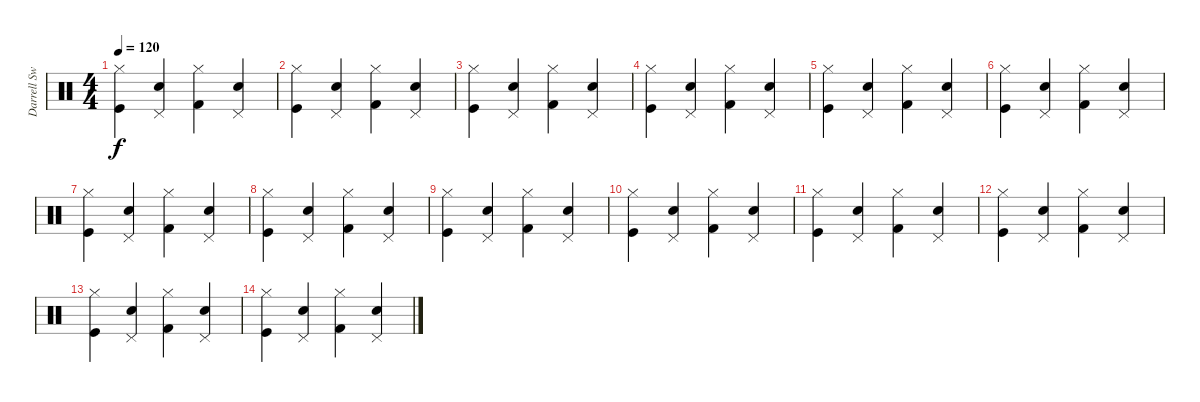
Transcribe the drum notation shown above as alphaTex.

\track ("Darrell Sweet (drums)" "Darrell Sw") {instrument percussion}
\staff {score}
\articulation defaults
\ts (4 4)
\tempo 120
\clef neutral
\ks c
("Hi-Hat (closed)" "Kick (hit)").4{dy f} ("Pedal Hi-Hat (hit)" "Snare (hit) 2").4 ("Hi-Hat (closed)" "Kick (hit) 2").4 ("Pedal Hi-Hat (hit)" "Snare (hit) 2").4 |
("Hi-Hat (closed)" "Kick (hit)").4 ("Pedal Hi-Hat (hit)" "Snare (hit) 2").4 ("Hi-Hat (closed)" "Kick (hit) 2").4 ("Pedal Hi-Hat (hit)" "Snare (hit) 2").4 |
("Hi-Hat (closed)" "Kick (hit)").4 ("Pedal Hi-Hat (hit)" "Snare (hit) 2").4 ("Hi-Hat (closed)" "Kick (hit) 2").4 ("Pedal Hi-Hat (hit)" "Snare (hit) 2").4 |
("Hi-Hat (closed)" "Kick (hit)").4 ("Pedal Hi-Hat (hit)" "Snare (hit) 2").4 ("Hi-Hat (closed)" "Kick (hit) 2").4 ("Pedal Hi-Hat (hit)" "Snare (hit) 2").4 |
("Hi-Hat (closed)" "Kick (hit)").4 ("Pedal Hi-Hat (hit)" "Snare (hit) 2").4 ("Hi-Hat (closed)" "Kick (hit) 2").4 ("Pedal Hi-Hat (hit)" "Snare (hit) 2").4 |
("Hi-Hat (closed)" "Kick (hit)").4 ("Pedal Hi-Hat (hit)" "Snare (hit) 2").4 ("Hi-Hat (closed)" "Kick (hit) 2").4 ("Pedal Hi-Hat (hit)" "Snare (hit) 2").4 |
("Hi-Hat (closed)" "Kick (hit)").4 ("Pedal Hi-Hat (hit)" "Snare (hit) 2").4 ("Hi-Hat (closed)" "Kick (hit) 2").4 ("Pedal Hi-Hat (hit)" "Snare (hit) 2").4 |
("Hi-Hat (closed)" "Kick (hit)").4 ("Pedal Hi-Hat (hit)" "Snare (hit) 2").4 ("Hi-Hat (closed)" "Kick (hit) 2").4 ("Pedal Hi-Hat (hit)" "Snare (hit) 2").4 |
("Hi-Hat (closed)" "Kick (hit)").4 ("Pedal Hi-Hat (hit)" "Snare (hit) 2").4 ("Hi-Hat (closed)" "Kick (hit) 2").4 ("Pedal Hi-Hat (hit)" "Snare (hit) 2").4 |
("Hi-Hat (closed)" "Kick (hit)").4 ("Pedal Hi-Hat (hit)" "Snare (hit) 2").4 ("Hi-Hat (closed)" "Kick (hit) 2").4 ("Pedal Hi-Hat (hit)" "Snare (hit) 2").4 |
("Hi-Hat (closed)" "Kick (hit)").4 ("Pedal Hi-Hat (hit)" "Snare (hit) 2").4 ("Hi-Hat (closed)" "Kick (hit) 2").4 ("Pedal Hi-Hat (hit)" "Snare (hit) 2").4 |
("Hi-Hat (closed)" "Kick (hit)").4 ("Pedal Hi-Hat (hit)" "Snare (hit) 2").4 ("Hi-Hat (closed)" "Kick (hit) 2").4 ("Pedal Hi-Hat (hit)" "Snare (hit) 2").4 |
("Hi-Hat (closed)" "Kick (hit)").4 ("Pedal Hi-Hat (hit)" "Snare (hit) 2").4 ("Hi-Hat (closed)" "Kick (hit) 2").4 ("Pedal Hi-Hat (hit)" "Snare (hit) 2").4 |
("Hi-Hat (closed)" "Kick (hit)").4 ("Pedal Hi-Hat (hit)" "Snare (hit) 2").4 ("Hi-Hat (closed)" "Kick (hit) 2").4 ("Pedal Hi-Hat (hit)" "Snare (hit) 2").4
